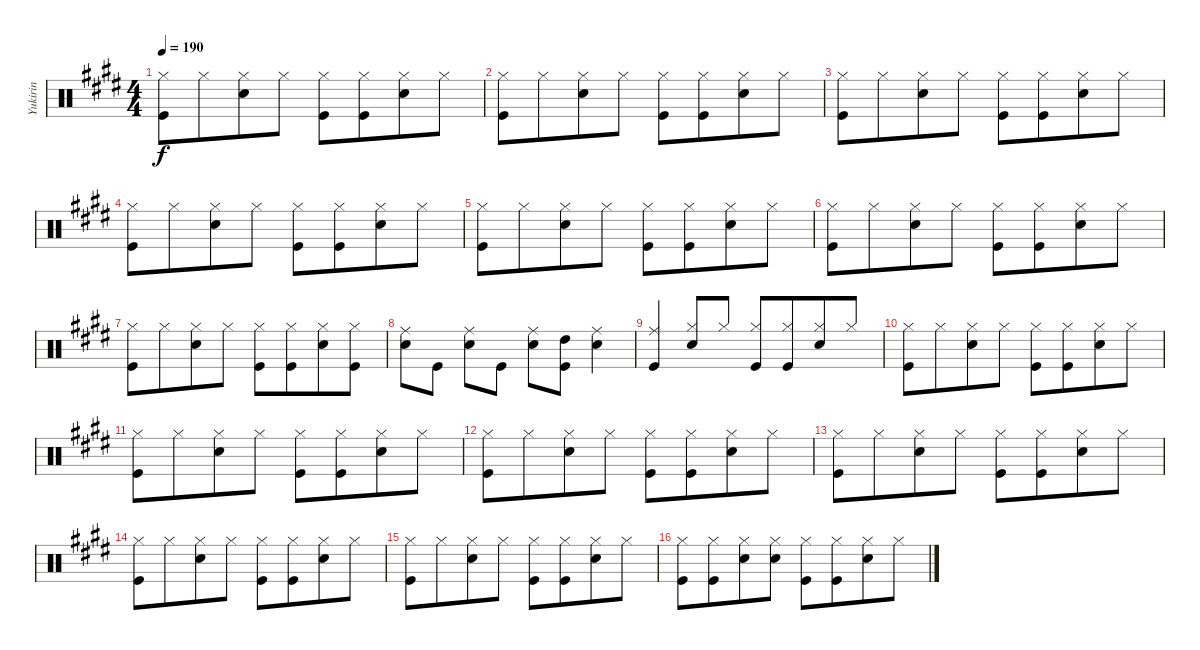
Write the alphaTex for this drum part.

\track ("Yukirin" "Yukirin") {mute instrument percussion}
\staff {score}
\articulation defaults
\ts (4 4)
\tempo 190
\clef neutral
\ks e
("Hi-Hat (closed)" "Kick (hit)").8{dy f} "Hi-Hat (closed)".8{beam merge} ("Hi-Hat (closed)" "Snare (hit) 2").8 "Hi-Hat (closed)".8 ("Hi-Hat (closed)" "Kick (hit)").8 ("Hi-Hat (closed)" "Kick (hit)").8{beam merge} ("Hi-Hat (closed)" "Snare (hit) 2").8 "Hi-Hat (closed)".8 |
("Hi-Hat (closed)" "Kick (hit)").8 "Hi-Hat (closed)".8{beam merge} ("Hi-Hat (closed)" "Snare (hit) 2").8 "Hi-Hat (closed)".8 ("Hi-Hat (closed)" "Kick (hit)").8 ("Hi-Hat (closed)" "Kick (hit)").8{beam merge} ("Hi-Hat (closed)" "Snare (hit) 2").8 "Hi-Hat (closed)".8 |
("Hi-Hat (closed)" "Kick (hit)").8 "Hi-Hat (closed)".8{beam merge} ("Hi-Hat (closed)" "Snare (hit) 2").8 "Hi-Hat (closed)".8 ("Hi-Hat (closed)" "Kick (hit)").8 ("Hi-Hat (closed)" "Kick (hit)").8{beam merge} ("Hi-Hat (closed)" "Snare (hit) 2").8 "Hi-Hat (closed)".8 |
("Hi-Hat (closed)" "Kick (hit)").8 "Hi-Hat (closed)".8{beam merge} ("Hi-Hat (closed)" "Snare (hit) 2").8 "Hi-Hat (closed)".8 ("Hi-Hat (closed)" "Kick (hit)").8 ("Hi-Hat (closed)" "Kick (hit)").8{beam merge} ("Hi-Hat (closed)" "Snare (hit) 2").8 "Hi-Hat (closed)".8 |
("Hi-Hat (closed)" "Kick (hit)").8 "Hi-Hat (closed)".8{beam merge} ("Hi-Hat (closed)" "Snare (hit) 2").8 "Hi-Hat (closed)".8 ("Hi-Hat (closed)" "Kick (hit)").8 ("Hi-Hat (closed)" "Kick (hit)").8{beam merge} ("Hi-Hat (closed)" "Snare (hit) 2").8 "Hi-Hat (closed)".8 |
("Hi-Hat (closed)" "Kick (hit)").8 "Hi-Hat (closed)".8{beam merge} ("Hi-Hat (closed)" "Snare (hit) 2").8 "Hi-Hat (closed)".8 ("Hi-Hat (closed)" "Kick (hit)").8 ("Hi-Hat (closed)" "Kick (hit)").8{beam merge} ("Hi-Hat (closed)" "Snare (hit) 2").8 "Hi-Hat (closed)".8 |
("Hi-Hat (closed)" "Kick (hit)").8 "Hi-Hat (closed)".8{beam merge} ("Hi-Hat (closed)" "Snare (hit) 2").8 "Hi-Hat (closed)".8 ("Hi-Hat (closed)" "Kick (hit)").8 ("Hi-Hat (closed)" "Kick (hit)").8{beam merge} ("Hi-Hat (closed)" "Snare (hit) 2").8 ("Hi-Hat (closed)" "Kick (hit)").8 |
("Ride (middle)" "Snare (hit) 2").8 "Kick (hit)".8 ("Ride (middle)" "Snare (hit) 2").8 "Kick (hit)".8 ("Ride (middle)" "Snare (hit) 2").8 ("High Tom (hit)" "Kick (hit)").8 ("Ride (middle)" "Snare (hit) 2").4 |
("Ride (middle)" "Kick (hit)").4{beam Up} ("Hi-Hat (closed)" "Snare (hit) 2").8{beam Up} "Hi-Hat (closed)".8{beam Up} ("Hi-Hat (closed)" "Kick (hit)").8{beam Up} ("Hi-Hat (closed)" "Kick (hit)").8{beam Up beam merge} ("Hi-Hat (closed)" "Snare (hit) 2").8{beam Up} "Hi-Hat (closed)".8{beam Up} |
("Hi-Hat (closed)" "Kick (hit)").8 "Hi-Hat (closed)".8{beam merge} ("Hi-Hat (closed)" "Snare (hit) 2").8 "Hi-Hat (closed)".8 ("Hi-Hat (closed)" "Kick (hit)").8 ("Hi-Hat (closed)" "Kick (hit)").8{beam merge} ("Hi-Hat (closed)" "Snare (hit) 2").8 "Hi-Hat (closed)".8 |
("Hi-Hat (closed)" "Kick (hit)").8 "Hi-Hat (closed)".8{beam merge} ("Hi-Hat (closed)" "Snare (hit) 2").8 "Hi-Hat (closed)".8 ("Hi-Hat (closed)" "Kick (hit)").8 ("Hi-Hat (closed)" "Kick (hit)").8{beam merge} ("Hi-Hat (closed)" "Snare (hit) 2").8 "Hi-Hat (closed)".8 |
("Hi-Hat (closed)" "Kick (hit)").8 "Hi-Hat (closed)".8{beam merge} ("Hi-Hat (closed)" "Snare (hit) 2").8 "Hi-Hat (closed)".8 ("Hi-Hat (closed)" "Kick (hit)").8 ("Hi-Hat (closed)" "Kick (hit)").8{beam merge} ("Hi-Hat (closed)" "Snare (hit) 2").8 "Hi-Hat (closed)".8 |
("Hi-Hat (closed)" "Kick (hit)").8 "Hi-Hat (closed)".8{beam merge} ("Hi-Hat (closed)" "Snare (hit) 2").8 "Hi-Hat (closed)".8 ("Hi-Hat (closed)" "Kick (hit)").8 ("Hi-Hat (closed)" "Kick (hit)").8{beam merge} ("Hi-Hat (closed)" "Snare (hit) 2").8 "Hi-Hat (closed)".8 |
("Hi-Hat (closed)" "Kick (hit)").8 "Hi-Hat (closed)".8{beam merge} ("Hi-Hat (closed)" "Snare (hit) 2").8 "Hi-Hat (closed)".8 ("Hi-Hat (closed)" "Kick (hit)").8 ("Hi-Hat (closed)" "Kick (hit)").8{beam merge} ("Hi-Hat (closed)" "Snare (hit) 2").8 "Hi-Hat (closed)".8 |
("Hi-Hat (closed)" "Kick (hit)").8 "Hi-Hat (closed)".8{beam merge} ("Hi-Hat (closed)" "Snare (hit) 2").8 "Hi-Hat (closed)".8 ("Hi-Hat (closed)" "Kick (hit)").8 ("Hi-Hat (closed)" "Kick (hit)").8{beam merge} ("Hi-Hat (closed)" "Snare (hit) 2").8 "Hi-Hat (closed)".8 |
("Hi-Hat (closed)" "Kick (hit)").8 ("Hi-Hat (closed)" "Kick (hit)").8{beam merge} ("Hi-Hat (closed)" "Snare (hit) 2").8 ("Hi-Hat (closed)" "Snare (hit) 2").8 ("Hi-Hat (closed)" "Kick (hit)").8 ("Hi-Hat (closed)" "Kick (hit)").8{beam merge} ("Hi-Hat (closed)" "Snare (hit) 2").8 "Hi-Hat (closed)".8
